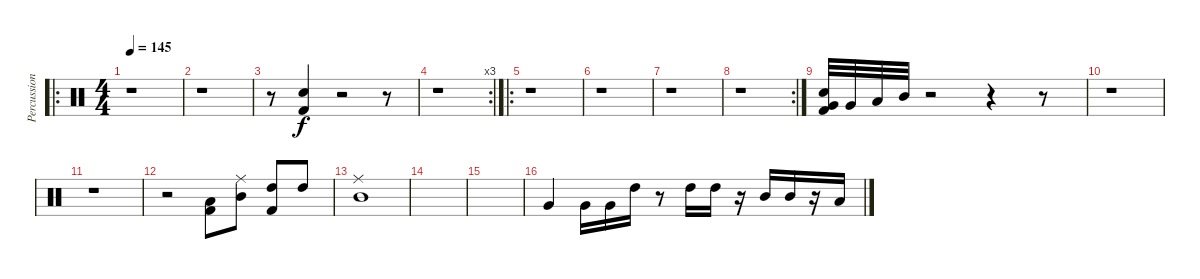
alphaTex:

\track ("Percussioni" "Percussion") {instrument percussion}
\staff {score}
\articulation defaults
\ro
\ts (4 4)
\tempo 145
\clef neutral
\ks c
r.1{dy f} |
r.1 |
r.8 ("Kick (hit) 2" "Electric Snare (hit)").4 r.2 r.8 |
\rc 3
r.1 |
\ro
r.1 |
r.1 |
r.1 |
\rc 2
r.1 |
("Kick (hit) 2" "Electric Snare (hit)" "Very Low Tom (hit)").32 "Very Low Tom (hit)".32 "Low Tom (hit)".32 "Mid Tom (hit)".32 r.2 r.4 r.8 |
r.1 |
r.1 |
r.2 ("Low Tom (hit)" "Kick (hit) 2").8 ("Ride (middle)" "Mid Tom (hit)").8 ("High Tom (hit)" "Kick (hit) 2").8 "High Tom (hit)".8 |
("Ride (middle)" "Mid Tom (hit)").1 |
|
|
"Very Low Tom (hit)".4 "Very Low Tom (hit)".16 "Very Low Tom (hit)".16 "High Tom (hit)".16 r.8 "High Tom (hit)".16 "High Tom (hit)".16 r.16 "Mid Tom (hit)".16 "Mid Tom (hit)".16 r.16 "Low Tom (hit)".16
